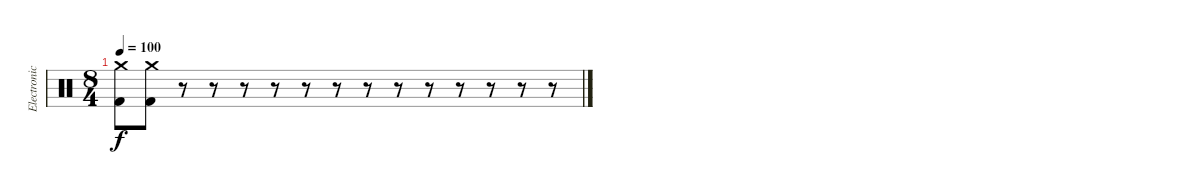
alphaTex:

\track ("Electronic Drums" "Electronic") {instrument percussion}
\staff {score}
\articulation defaults
\ts (8 4)
\tempo 100
\clef neutral
\ks c
("Crash medium (hit)" "Kick (hit) 2").8{dy f} ("Crash medium (hit)" "Kick (hit) 2").8 r.8 r.8 r.8 r.8 r.8 r.8 r.8 r.8 r.8 r.8 r.8 r.8 r.8
